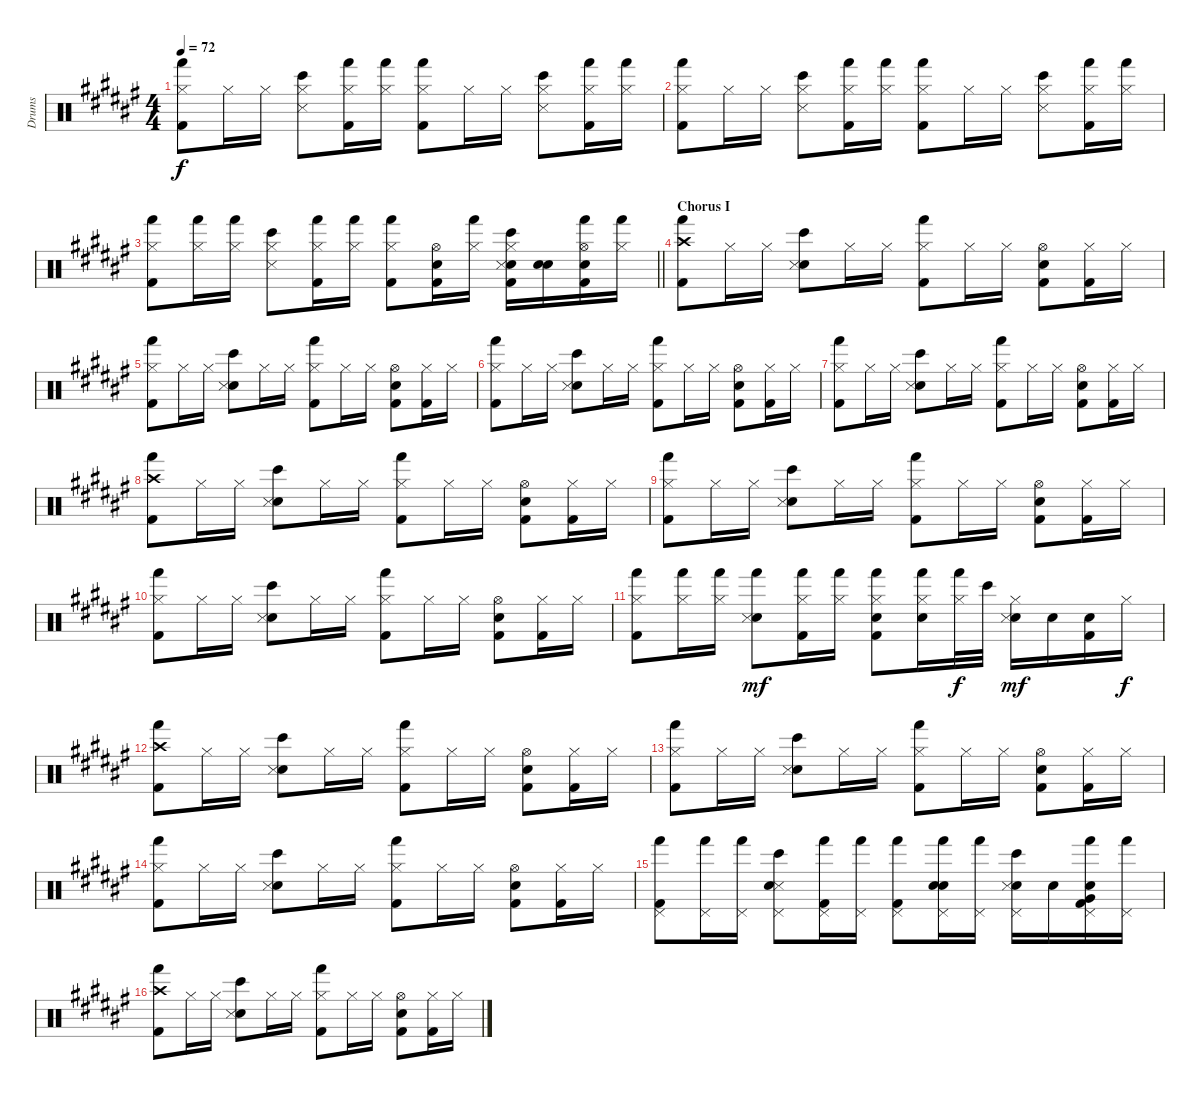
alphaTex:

\track ("Drums" "Drums") {instrument percussion}
\staff {score}
\articulation defaults
\ts (4 4)
\tempo 72
\clef neutral
\ks f#
("Hi-Hat (closed)" "Hand (hit)" "Kick (hit) 2").8{dy f} "Hi-Hat (closed)".16 "Hi-Hat (closed)".16 ("Hi-Hat (closed)" "Bongo High (hit)" "Snare (side stick) 3").8 ("Hi-Hat (closed)" "Hand (hit)" "Kick (hit) 2").16 ("Hi-Hat (closed)" "Hand (hit)").16 ("Hi-Hat (closed)" "Hand (hit)" "Kick (hit) 2").8 "Hi-Hat (closed)".16 "Hi-Hat (closed)".16 ("Hi-Hat (closed)" "Bongo High (hit)" "Snare (side stick) 3").8 ("Hi-Hat (closed)" "Hand (hit)" "Kick (hit) 2").16 ("Hi-Hat (closed)" "Hand (hit)").16 |
("Hi-Hat (closed)" "Hand (hit)" "Kick (hit) 2").8 "Hi-Hat (closed)".16 "Hi-Hat (closed)".16 ("Hi-Hat (closed)" "Bongo High (hit)" "Snare (side stick) 3").8 ("Hi-Hat (closed)" "Hand (hit)" "Kick (hit) 2").16 ("Hi-Hat (closed)" "Hand (hit)").16 ("Hi-Hat (closed)" "Hand (hit)" "Kick (hit) 2").8 "Hi-Hat (closed)".16 "Hi-Hat (closed)".16 ("Hi-Hat (closed)" "Bongo High (hit)" "Snare (side stick) 3").8 ("Hi-Hat (closed)" "Hand (hit)" "Kick (hit) 2").16 ("Hi-Hat (closed)" "Hand (hit)").16 |
\barLineRight lightlight
("Hi-Hat (closed)" "Hand (hit)" "Kick (hit) 2").8 ("Hi-Hat (closed)" "Hand (hit)").16 ("Hi-Hat (closed)" "Hand (hit)").16 ("Hi-Hat (closed)" "Bongo High (hit)" "Snare (side stick) 3").8 ("Hi-Hat (closed)" "Hand (hit)" "Kick (hit) 2").16 ("Hi-Hat (closed)" "Hand (hit)").16 ("Hi-Hat (closed)" "Hand (hit)" "Kick (hit) 2").8 ("Hi-Hat (open)" "Snare (hit) 2" "Kick (hit) 2").16 ("Hand (hit)" "Hi-Hat (closed)").16 ("Hi-Hat (closed)" "Snare (hit) 2" "Bongo High (hit)" "Kick (hit) 2" "Snare (side stick) 3").16 ("Electric Snare (hit)" "Snare (hit) 2").16 ("Hi-Hat (open)" "Snare (hit) 2" "Kick (hit) 2" "Hand (hit)").16 ("Hand (hit)" "Hi-Hat (closed)").16 |
\section ("" "Chorus I")
("Crash high (hit)" "Hand (hit)" "Kick (hit) 2").8 "Hi-Hat (closed)".16 "Hi-Hat (closed)".16 ("Bongo High (hit)" "Snare (hit) 2" "Snare (side stick) 3").8 "Hi-Hat (closed)".16 "Hi-Hat (closed)".16 ("Hi-Hat (closed)" "Hand (hit)" "Kick (hit) 2").8 "Hi-Hat (closed)".16 "Hi-Hat (closed)".16 ("Hi-Hat (open)" "Snare (hit) 2" "Kick (hit) 2").8 ("Hi-Hat (closed)" "Kick (hit) 2").16 "Hi-Hat (closed)".16 |
("Hi-Hat (closed)" "Hand (hit)" "Kick (hit) 2").8 "Hi-Hat (closed)".16 "Hi-Hat (closed)".16 ("Bongo High (hit)" "Snare (hit) 2" "Snare (side stick) 3").8 "Hi-Hat (closed)".16 "Hi-Hat (closed)".16 ("Hi-Hat (closed)" "Hand (hit)" "Kick (hit) 2").8 "Hi-Hat (closed)".16 "Hi-Hat (closed)".16 ("Hi-Hat (open)" "Snare (hit) 2" "Kick (hit) 2").8 ("Hi-Hat (closed)" "Kick (hit) 2").16 "Hi-Hat (closed)".16 |
("Hi-Hat (closed)" "Hand (hit)" "Kick (hit) 2").8 "Hi-Hat (closed)".16 "Hi-Hat (closed)".16 ("Bongo High (hit)" "Snare (hit) 2" "Snare (side stick) 3").8 "Hi-Hat (closed)".16 "Hi-Hat (closed)".16 ("Hi-Hat (closed)" "Hand (hit)" "Kick (hit) 2").8 "Hi-Hat (closed)".16 "Hi-Hat (closed)".16 ("Hi-Hat (open)" "Snare (hit) 2" "Kick (hit) 2").8 ("Hi-Hat (closed)" "Kick (hit) 2").16 "Hi-Hat (closed)".16 |
("Hi-Hat (closed)" "Hand (hit)" "Kick (hit) 2").8 "Hi-Hat (closed)".16 "Hi-Hat (closed)".16 ("Bongo High (hit)" "Snare (hit) 2" "Snare (side stick) 3").8 "Hi-Hat (closed)".16 "Hi-Hat (closed)".16 ("Hi-Hat (closed)" "Hand (hit)" "Kick (hit) 2").8 "Hi-Hat (closed)".16 "Hi-Hat (closed)".16 ("Hi-Hat (open)" "Snare (hit) 2" "Kick (hit) 2").8 ("Hi-Hat (closed)" "Kick (hit) 2").16 "Hi-Hat (closed)".16 |
("Crash high (hit)" "Hand (hit)" "Kick (hit) 2").8 "Hi-Hat (closed)".16 "Hi-Hat (closed)".16 ("Bongo High (hit)" "Snare (hit) 2" "Snare (side stick) 3").8 "Hi-Hat (closed)".16 "Hi-Hat (closed)".16 ("Hi-Hat (closed)" "Hand (hit)" "Kick (hit) 2").8 "Hi-Hat (closed)".16 "Hi-Hat (closed)".16 ("Hi-Hat (open)" "Snare (hit) 2" "Kick (hit) 2").8 ("Hi-Hat (closed)" "Kick (hit) 2").16 "Hi-Hat (closed)".16 |
("Hi-Hat (closed)" "Hand (hit)" "Kick (hit) 2").8 "Hi-Hat (closed)".16 "Hi-Hat (closed)".16 ("Bongo High (hit)" "Snare (hit) 2" "Snare (side stick) 3").8 "Hi-Hat (closed)".16 "Hi-Hat (closed)".16 ("Hi-Hat (closed)" "Hand (hit)" "Kick (hit) 2").8 "Hi-Hat (closed)".16 "Hi-Hat (closed)".16 ("Hi-Hat (open)" "Snare (hit) 2" "Kick (hit) 2").8 ("Hi-Hat (closed)" "Kick (hit) 2").16 "Hi-Hat (closed)".16 |
("Hi-Hat (closed)" "Hand (hit)" "Kick (hit) 2").8 "Hi-Hat (closed)".16 "Hi-Hat (closed)".16 ("Bongo High (hit)" "Snare (hit) 2" "Snare (side stick) 3").8 "Hi-Hat (closed)".16 "Hi-Hat (closed)".16 ("Hi-Hat (closed)" "Hand (hit)" "Kick (hit) 2").8 "Hi-Hat (closed)".16 "Hi-Hat (closed)".16 ("Hi-Hat (open)" "Snare (hit) 2" "Kick (hit) 2").8 ("Hi-Hat (closed)" "Kick (hit) 2").16 "Hi-Hat (closed)".16 |
("Hi-Hat (closed)" "Hand (hit)" "Kick (hit) 2").8 ("Hand (hit)" "Hi-Hat (closed)").16 ("Hand (hit)" "Hi-Hat (closed)").16 ("Hand (hit)" "Snare (hit) 2" "Snare (side stick) 3").8{dy mf} ("Hi-Hat (closed)" "Hand (hit)" "Kick (hit) 2").16 ("Hi-Hat (closed)" "Hand (hit)").16 ("Hand (hit)" "Hi-Hat (closed)" "Snare (hit) 2" "Kick (hit) 2").8 ("Hand (hit)" "Hi-Hat (closed)" "Snare (hit) 2").16 ("Hand (hit)" "Hi-Hat (closed)").32{dy f} "Bongo High (hit)".32 ("Hi-Hat (closed)" "Snare (hit) 2" "Snare (side stick) 3").16{dy mf} "Snare (hit) 2".16 ("Snare (hit) 2" "Kick (hit) 2").16 "Hi-Hat (closed)".16{dy f} |
("Crash high (hit)" "Hand (hit)" "Kick (hit) 2").8 "Hi-Hat (closed)".16 "Hi-Hat (closed)".16 ("Bongo High (hit)" "Snare (hit) 2" "Snare (side stick) 3").8 "Hi-Hat (closed)".16 "Hi-Hat (closed)".16 ("Hi-Hat (closed)" "Hand (hit)" "Kick (hit) 2").8 "Hi-Hat (closed)".16 "Hi-Hat (closed)".16 ("Hi-Hat (open)" "Snare (hit) 2" "Kick (hit) 2").8 ("Hi-Hat (closed)" "Kick (hit) 2").16 "Hi-Hat (closed)".16 |
("Hi-Hat (closed)" "Hand (hit)" "Kick (hit) 2").8 "Hi-Hat (closed)".16 "Hi-Hat (closed)".16 ("Bongo High (hit)" "Snare (hit) 2" "Snare (side stick) 3").8 "Hi-Hat (closed)".16 "Hi-Hat (closed)".16 ("Hi-Hat (closed)" "Hand (hit)" "Kick (hit) 2").8 "Hi-Hat (closed)".16 "Hi-Hat (closed)".16 ("Hi-Hat (open)" "Snare (hit) 2" "Kick (hit) 2").8 ("Hi-Hat (closed)" "Kick (hit) 2").16 "Hi-Hat (closed)".16 |
("Hi-Hat (closed)" "Hand (hit)" "Kick (hit) 2").8 "Hi-Hat (closed)".16 "Hi-Hat (closed)".16 ("Bongo High (hit)" "Snare (hit) 2" "Snare (side stick) 3").8 "Hi-Hat (closed)".16 "Hi-Hat (closed)".16 ("Hi-Hat (closed)" "Hand (hit)" "Kick (hit) 2").8 "Hi-Hat (closed)".16 "Hi-Hat (closed)".16 ("Hi-Hat (open)" "Snare (hit) 2" "Kick (hit) 2").8 ("Hi-Hat (closed)" "Kick (hit) 2").16 "Hi-Hat (closed)".16 |
("Hand (hit)" "Pedal Hi-Hat (hit)" "Kick (hit) 2").8 ("Hand (hit)" "Pedal Hi-Hat (hit)").16 ("Hand (hit)" "Pedal Hi-Hat (hit)").16 ("Snare (side stick) 3" "Pedal Hi-Hat (hit)" "Bongo High (hit)" "Electric Snare (hit)").8 ("Pedal Hi-Hat (hit)" "Kick (hit) 2" "Hand (hit)").16 ("Hand (hit)" "Pedal Hi-Hat (hit)").16 ("Pedal Hi-Hat (hit)" "Kick (hit) 2" "Hand (hit)").8 ("Pedal Hi-Hat (hit)" "Hand (hit)" "Electric Snare (hit)" "Snare (hit) 2").16 ("Hand (hit)" "Pedal Hi-Hat (hit)").16 ("Pedal Hi-Hat (hit)" "Bongo High (hit)" "Electric Snare (hit)" "Snare (side stick) 3").16 "Electric Snare (hit)".16 ("Kick (hit) 2" "Hand (hit)" "Very Low Tom (hit)" "Pedal Hi-Hat (hit)" "Electric Snare (hit)").16 ("Pedal Hi-Hat (hit)" "Hand (hit)").16 |
("Crash high (hit)" "Hand (hit)" "Kick (hit) 2").8 "Hi-Hat (closed)".16 "Hi-Hat (closed)".16 ("Bongo High (hit)" "Snare (hit) 2" "Snare (side stick) 3").8 "Hi-Hat (closed)".16 "Hi-Hat (closed)".16 ("Hi-Hat (closed)" "Hand (hit)" "Kick (hit) 2").8 "Hi-Hat (closed)".16 "Hi-Hat (closed)".16 ("Hi-Hat (open)" "Snare (hit) 2" "Kick (hit) 2").8 ("Hi-Hat (closed)" "Kick (hit) 2").16 "Hi-Hat (closed)".16
